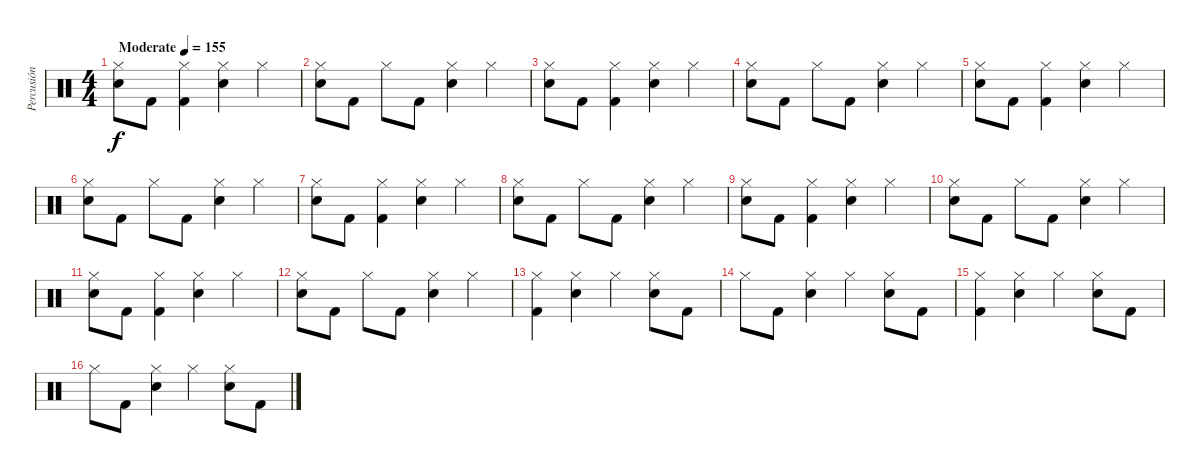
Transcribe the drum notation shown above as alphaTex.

\track ("Percusión" "Percusión") {instrument percussion}
\staff {score}
\articulation defaults
\ts (4 4)
\tempo (155 "Moderate")
\clef neutral
\ks c
("Hi-Hat (closed)" "Electric Snare (hit)").8{dy f} "Kick (hit) 2".8 ("Hi-Hat (closed)" "Kick (hit) 2").4 ("Hi-Hat (closed)" "Electric Snare (hit)").4 "Hi-Hat (closed)".4 |
("Hi-Hat (closed)" "Electric Snare (hit)").8 "Kick (hit) 2".8 "Hi-Hat (closed)".8 "Kick (hit) 2".8 ("Hi-Hat (closed)" "Electric Snare (hit)").4 "Hi-Hat (closed)".4 |
("Hi-Hat (closed)" "Electric Snare (hit)").8 "Kick (hit) 2".8 ("Hi-Hat (closed)" "Kick (hit) 2").4 ("Hi-Hat (closed)" "Electric Snare (hit)").4 "Hi-Hat (closed)".4 |
("Hi-Hat (closed)" "Electric Snare (hit)").8 "Kick (hit) 2".8 "Hi-Hat (closed)".8 "Kick (hit) 2".8 ("Hi-Hat (closed)" "Electric Snare (hit)").4 "Hi-Hat (closed)".4 |
("Hi-Hat (closed)" "Electric Snare (hit)").8 "Kick (hit) 2".8 ("Hi-Hat (closed)" "Kick (hit) 2").4 ("Hi-Hat (closed)" "Electric Snare (hit)").4 "Hi-Hat (closed)".4 |
("Hi-Hat (closed)" "Electric Snare (hit)").8 "Kick (hit) 2".8 "Hi-Hat (closed)".8 "Kick (hit) 2".8 ("Hi-Hat (closed)" "Electric Snare (hit)").4 "Hi-Hat (closed)".4 |
("Hi-Hat (closed)" "Electric Snare (hit)").8 "Kick (hit) 2".8 ("Hi-Hat (closed)" "Kick (hit) 2").4 ("Hi-Hat (closed)" "Electric Snare (hit)").4 "Hi-Hat (closed)".4 |
("Hi-Hat (closed)" "Electric Snare (hit)").8 "Kick (hit) 2".8 "Hi-Hat (closed)".8 "Kick (hit) 2".8 ("Hi-Hat (closed)" "Electric Snare (hit)").4 "Hi-Hat (closed)".4 |
("Hi-Hat (closed)" "Electric Snare (hit)").8 "Kick (hit) 2".8 ("Hi-Hat (closed)" "Kick (hit) 2").4 ("Hi-Hat (closed)" "Electric Snare (hit)").4 "Hi-Hat (closed)".4 |
("Hi-Hat (closed)" "Electric Snare (hit)").8 "Kick (hit) 2".8 "Hi-Hat (closed)".8 "Kick (hit) 2".8 ("Hi-Hat (closed)" "Electric Snare (hit)").4 "Hi-Hat (closed)".4 |
("Hi-Hat (closed)" "Electric Snare (hit)").8 "Kick (hit) 2".8 ("Hi-Hat (closed)" "Kick (hit) 2").4 ("Hi-Hat (closed)" "Electric Snare (hit)").4 "Hi-Hat (closed)".4 |
("Hi-Hat (closed)" "Electric Snare (hit)").8 "Kick (hit) 2".8 "Hi-Hat (closed)".8 "Kick (hit) 2".8 ("Hi-Hat (closed)" "Electric Snare (hit)").4 "Hi-Hat (closed)".4 |
("Hi-Hat (closed)" "Kick (hit) 2").4 ("Hi-Hat (closed)" "Electric Snare (hit)").4 "Hi-Hat (closed)".4 ("Hi-Hat (closed)" "Electric Snare (hit)").8 "Kick (hit) 2".8 |
"Hi-Hat (closed)".8 "Kick (hit) 2".8 ("Hi-Hat (closed)" "Electric Snare (hit)").4 "Hi-Hat (closed)".4 ("Hi-Hat (closed)" "Electric Snare (hit)").8 "Kick (hit) 2".8 |
("Hi-Hat (closed)" "Kick (hit) 2").4 ("Hi-Hat (closed)" "Electric Snare (hit)").4 "Hi-Hat (closed)".4 ("Hi-Hat (closed)" "Electric Snare (hit)").8 "Kick (hit) 2".8 |
"Hi-Hat (closed)".8 "Kick (hit) 2".8 ("Hi-Hat (closed)" "Electric Snare (hit)").4 "Hi-Hat (closed)".4 ("Hi-Hat (closed)" "Electric Snare (hit)").8 "Kick (hit) 2".8
